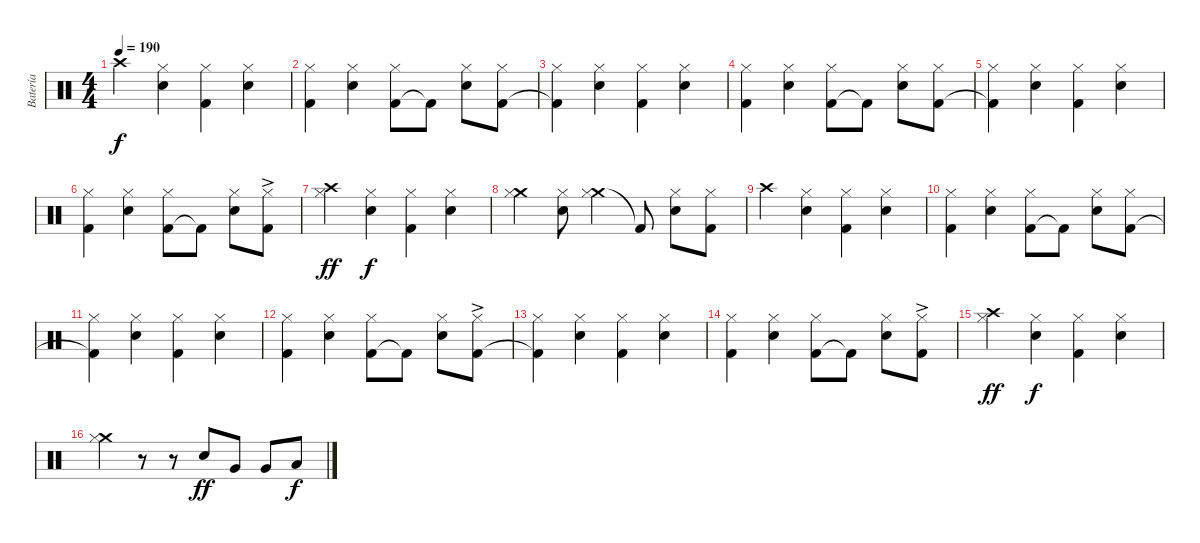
\track ("Batería" "Batería") {instrument percussion}
\staff {score}
\articulation defaults
\ts (4 4)
\tempo 190
\clef neutral
\ks c "Crash high (hit)".4{dy f}
("Electric Snare (hit)" "Hi-Hat (closed)").4 ("Kick (hit) 2" "Hi-Hat (closed)").4 ("Electric Snare (hit)" "Hi-Hat (closed)").4 |
("Kick (hit) 2" "Hi-Hat (closed)").4 ("Electric Snare (hit)" "Hi-Hat (closed)").4 ("Kick (hit) 2" "Hi-Hat (closed)").8 "Kick (hit) 2"{t}.8 ("Electric Snare (hit)" "Hi-Hat (closed)").8 ("Kick (hit) 2" "Hi-Hat (closed)").8 |
("Kick (hit) 2"{t} "Hi-Hat (closed)").4 ("Electric Snare (hit)" "Hi-Hat (closed)").4 ("Kick (hit) 2" "Hi-Hat (closed)").4 ("Electric Snare (hit)" "Hi-Hat (closed)").4 |
("Kick (hit) 2" "Hi-Hat (closed)").4 ("Electric Snare (hit)" "Hi-Hat (closed)").4 ("Kick (hit) 2" "Hi-Hat (closed)").8 "Kick (hit) 2"{t}.8 ("Electric Snare (hit)" "Hi-Hat (closed)").8 ("Kick (hit) 2" "Hi-Hat (closed)").8 |
("Kick (hit) 2"{t} "Hi-Hat (closed)").4 ("Electric Snare (hit)" "Hi-Hat (closed)").4 ("Kick (hit) 2" "Hi-Hat (closed)").4 ("Electric Snare (hit)" "Hi-Hat (closed)").4 |
("Kick (hit) 2" "Hi-Hat (closed)").4 ("Electric Snare (hit)" "Hi-Hat (closed)").4 ("Kick (hit) 2" "Hi-Hat (closed)").8 "Kick (hit) 2"{t}.8 ("Electric Snare (hit)" "Hi-Hat (closed)").8 ("Kick (hit) 2"{ac} "Hi-Hat (closed)").8 |
("Crash high (hit)" "Hi-Hat (closed)").4{dy ff} ("Electric Snare (hit)" "Hi-Hat (closed)").4{dy f} ("Kick (hit) 2" "Hi-Hat (closed)").4 ("Electric Snare (hit)" "Hi-Hat (closed)").4 |
("Crash medium (hit)" "Hi-Hat (closed)").4 ("Electric Snare (hit)" "Hi-Hat (closed)").8 ("Crash medium (hit)" "Hi-Hat (closed)").4 "Kick (hit) 2"{t}.8 ("Electric Snare (hit)" "Hi-Hat (closed)").8 ("Kick (hit) 2" "Hi-Hat (closed)").8 |
"Crash high (hit)".4 ("Electric Snare (hit)" "Hi-Hat (closed)").4 ("Kick (hit) 2" "Hi-Hat (closed)").4 ("Electric Snare (hit)" "Hi-Hat (closed)").4 |
("Kick (hit) 2" "Hi-Hat (closed)").4 ("Electric Snare (hit)" "Hi-Hat (closed)").4 ("Kick (hit) 2" "Hi-Hat (closed)").8 "Kick (hit) 2"{t}.8 ("Electric Snare (hit)" "Hi-Hat (closed)").8 ("Kick (hit) 2" "Hi-Hat (closed)").8 |
("Kick (hit) 2"{t} "Hi-Hat (closed)").4 ("Electric Snare (hit)" "Hi-Hat (closed)").4 ("Kick (hit) 2" "Hi-Hat (closed)").4 ("Electric Snare (hit)" "Hi-Hat (closed)").4 |
("Kick (hit) 2" "Hi-Hat (closed)").4 ("Electric Snare (hit)" "Hi-Hat (closed)").4 ("Kick (hit) 2" "Hi-Hat (closed)").8 "Kick (hit) 2"{t}.8 ("Electric Snare (hit)" "Hi-Hat (closed)").8 ("Kick (hit) 2"{ac} "Hi-Hat (closed)").8 |
("Kick (hit) 2"{t} "Hi-Hat (closed)").4 ("Electric Snare (hit)" "Hi-Hat (closed)").4 ("Kick (hit) 2" "Hi-Hat (closed)").4 ("Electric Snare (hit)" "Hi-Hat (closed)").4 |
("Kick (hit) 2" "Hi-Hat (closed)").4 ("Electric Snare (hit)" "Hi-Hat (closed)").4 ("Kick (hit) 2" "Hi-Hat (closed)").8 "Kick (hit) 2"{t}.8 ("Electric Snare (hit)" "Hi-Hat (closed)").8 ("Kick (hit) 2"{ac} "Hi-Hat (closed)").8 |
("Crash high (hit)" "Hi-Hat (closed)").4{dy ff} ("Electric Snare (hit)" "Hi-Hat (closed)").4{dy f} ("Kick (hit) 2" "Hi-Hat (closed)").4 ("Electric Snare (hit)" "Hi-Hat (closed)").4 |
("Crash medium (hit)" "Hi-Hat (closed)").4 r.8 r.8 "Electric Snare (hit)".8{dy ff} "Very Low Tom (hit)".8 "Very Low Tom (hit)".8 "Low Floor Tom (hit)".8{dy f}
